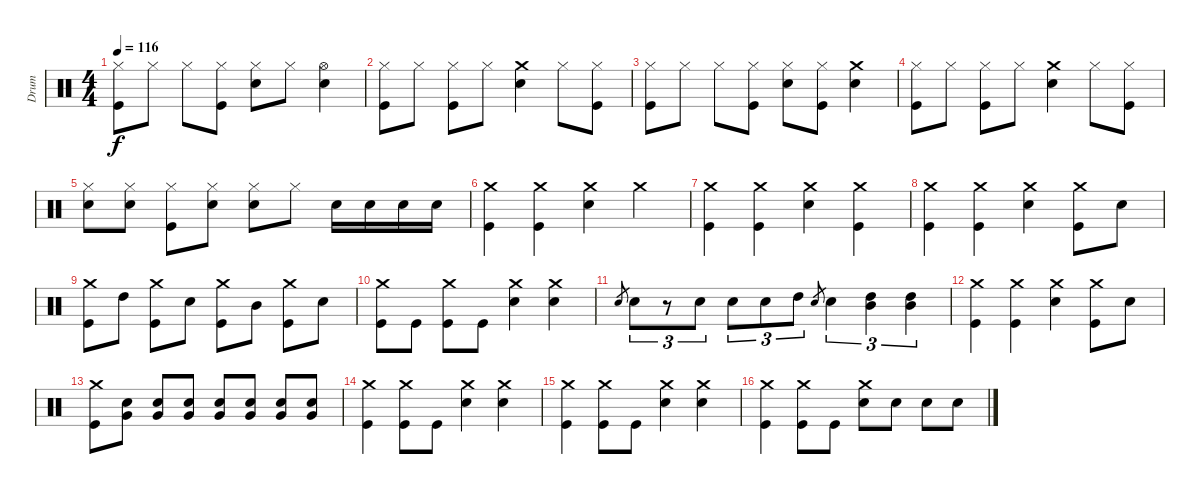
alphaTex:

\track ("Drum" "Drum") {instrument percussion}
\staff {score}
\articulation defaults
\ts (4 4)
\tempo 116
\clef neutral
\ks c
("Kick (hit)" "Hi-Hat (closed)").8{dy f} "Hi-Hat (closed)".8 "Hi-Hat (closed)".8 ("Kick (hit)" "Hi-Hat (closed)").8 ("Electric Snare (hit)" "Hi-Hat (closed)").8 "Hi-Hat (closed)".8 ("Electric Snare (hit)" "Hi-Hat (open)").4 |
("Kick (hit)" "Hi-Hat (closed)").8 "Hi-Hat (closed)".8 ("Kick (hit)" "Hi-Hat (closed)").8 "Hi-Hat (closed)".8 ("Electric Snare (hit)" "Crash medium (hit)").4 "Hi-Hat (closed)".8 ("Kick (hit)" "Hi-Hat (closed)").8 |
("Kick (hit)" "Hi-Hat (closed)").8 "Hi-Hat (closed)".8 "Hi-Hat (closed)".8 ("Kick (hit)" "Hi-Hat (closed)").8 ("Electric Snare (hit)" "Hi-Hat (closed)").8 ("Kick (hit)" "Hi-Hat (closed)").8 ("Electric Snare (hit)" "Crash medium (hit)").4 |
("Kick (hit)" "Hi-Hat (closed)").8 "Hi-Hat (closed)".8 ("Kick (hit)" "Hi-Hat (closed)").8 "Hi-Hat (closed)".8 ("Electric Snare (hit)" "Crash medium (hit)").4 "Hi-Hat (closed)".8 ("Kick (hit)" "Hi-Hat (closed)").8 |
("Electric Snare (hit)" "Hi-Hat (closed)").8 ("Electric Snare (hit)" "Hi-Hat (closed)").8 ("Kick (hit)" "Hi-Hat (closed)").8 ("Electric Snare (hit)" "Hi-Hat (closed)").8 ("Electric Snare (hit)" "Hi-Hat (closed)").8 "Hi-Hat (closed)".8 "Electric Snare (hit)".16 "Electric Snare (hit)".16 "Electric Snare (hit)".16 "Electric Snare (hit)".16 |
("Kick (hit)" "Crash medium (hit)").4 ("Kick (hit)" "Crash medium (hit)").4 ("Electric Snare (hit)" "Crash medium (hit)").4 "Crash medium (hit)".4 |
("Kick (hit)" "Crash medium (hit)").4 ("Kick (hit)" "Crash medium (hit)").4 ("Electric Snare (hit)" "Crash medium (hit)").4 ("Kick (hit)" "Crash medium (hit)").4 |
("Kick (hit)" "Crash medium (hit)").4 ("Kick (hit)" "Crash medium (hit)").4 ("Electric Snare (hit)" "Crash medium (hit)").4 ("Kick (hit)" "Crash medium (hit)").8 "Electric Snare (hit)".8 |
("Kick (hit)" "Crash medium (hit)").8 "High Tom (hit)".8 ("Kick (hit)" "Crash medium (hit)").8 "Electric Snare (hit)".8 ("Kick (hit)" "Crash medium (hit)").8 "Mid Tom (hit)".8 ("Kick (hit)" "Crash medium (hit)").8 "Electric Snare (hit)".8 |
("Kick (hit)" "Crash medium (hit)").8 "Kick (hit)".8 ("Kick (hit)" "Crash medium (hit)").8 "Kick (hit)".8 ("Electric Snare (hit)" "Crash medium (hit)").4 ("Electric Snare (hit)" "Crash medium (hit)").4 |
"Electric Snare (hit)".8{gr} "Electric Snare (hit)".8{tu (3 2)} r.8{tu (3 2)} "Electric Snare (hit)".8{tu (3 2)} "Electric Snare (hit)".8{tu (3 2)} "Electric Snare (hit)".8{tu (3 2)} "High Tom (hit)".8{tu (3 2)} "Electric Snare (hit)".8{gr} "Electric Snare (hit)".4{tu (3 2)} ("Mid Tom (hit)" "High Tom (hit)").4{tu (3 2)} ("Mid Tom (hit)" "High Tom (hit)").4{tu (3 2)} |
("Kick (hit)" "Crash medium (hit)").4 ("Kick (hit)" "Crash medium (hit)").4 ("Electric Snare (hit)" "Crash medium (hit)").4 ("Kick (hit)" "Crash medium (hit)").8 "Electric Snare (hit)".8 |
("Kick (hit)" "Crash medium (hit)").8 ("Electric Snare (hit)" "Very Low Tom (hit)").8 ("Electric Snare (hit)" "Very Low Tom (hit)").8 ("Electric Snare (hit)" "Very Low Tom (hit)").8 ("Electric Snare (hit)" "Very Low Tom (hit)").8 ("Electric Snare (hit)" "Very Low Tom (hit)").8 ("Electric Snare (hit)" "Very Low Tom (hit)").8 ("Electric Snare (hit)" "Very Low Tom (hit)").8 |
("Kick (hit)" "Crash medium (hit)").4 ("Kick (hit)" "Crash medium (hit)").8 "Kick (hit)".8 ("Electric Snare (hit)" "Crash medium (hit)").4 ("Electric Snare (hit)" "Crash medium (hit)").4 |
("Kick (hit)" "Crash medium (hit)").4 ("Kick (hit)" "Crash medium (hit)").8 "Kick (hit)".8 ("Electric Snare (hit)" "Crash medium (hit)").4 ("Electric Snare (hit)" "Crash medium (hit)").4 |
("Kick (hit)" "Crash medium (hit)").4 ("Kick (hit)" "Crash medium (hit)").8 "Kick (hit)".8 ("Electric Snare (hit)" "Crash medium (hit)").8 "Electric Snare (hit)".8 "Electric Snare (hit)".8 "Electric Snare (hit)".8
